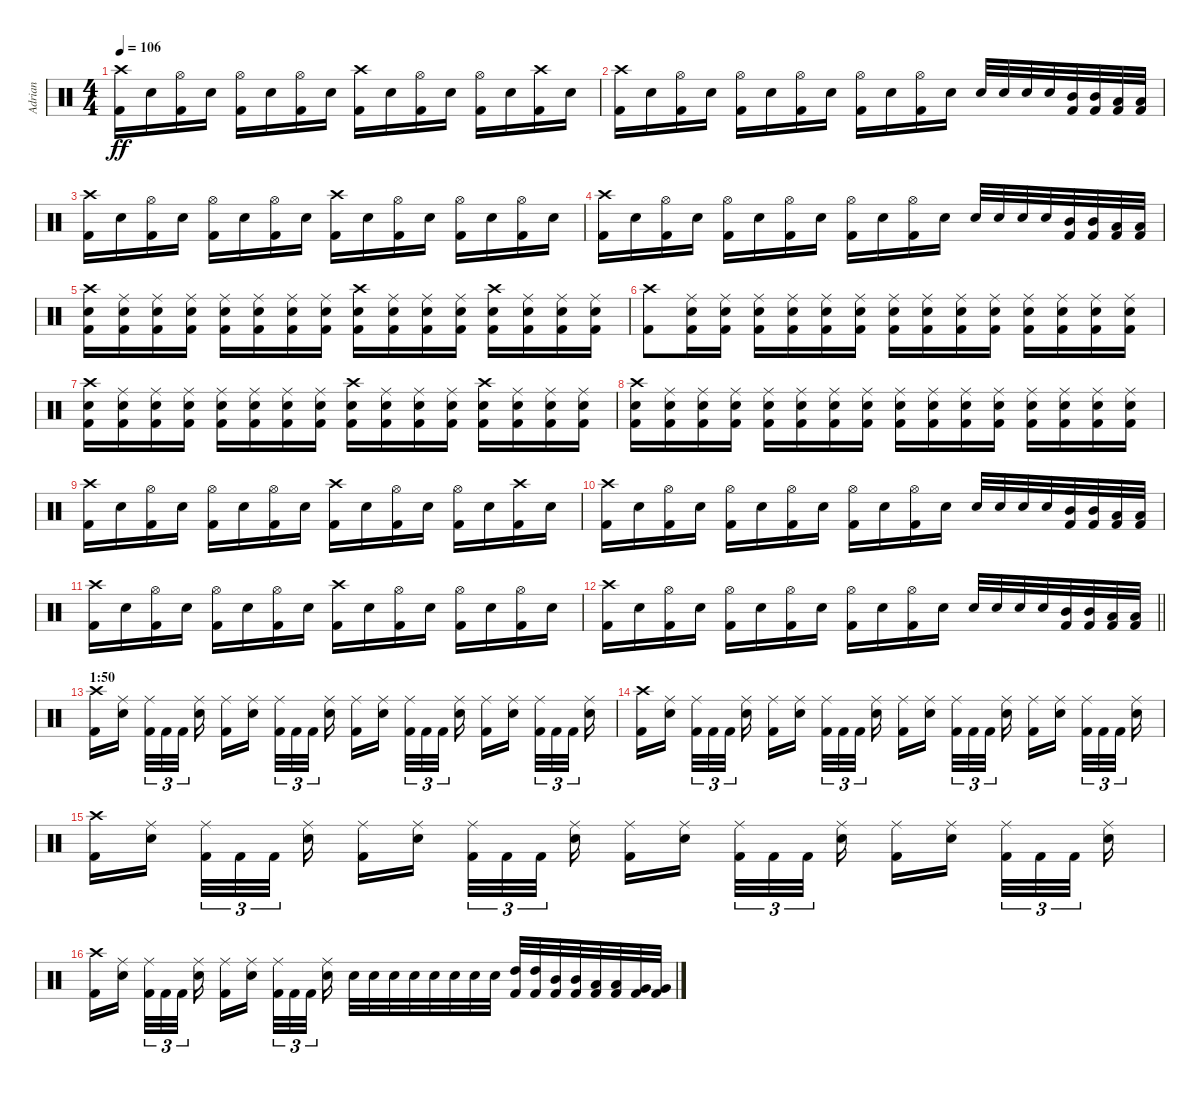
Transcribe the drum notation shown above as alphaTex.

\track ("Adrian" "Adrian") {instrument percussion}
\staff {score}
\articulation defaults
\ts (4 4)
\tempo 106
\clef neutral
\ks c
("Kick (hit) 2" "Crash high (hit)").16{dy ff} "Snare (hit) 2".16 ("Kick (hit) 2" "Hi-Hat (open)").16 "Snare (hit) 2".16 ("Kick (hit) 2" "Hi-Hat (open)").16 "Snare (hit) 2".16 ("Kick (hit) 2" "Hi-Hat (open)").16 "Snare (hit) 2".16 ("Kick (hit) 2" "Crash high (hit)").16 "Snare (hit) 2".16 ("Kick (hit) 2" "Hi-Hat (open)").16 "Snare (hit) 2".16 ("Kick (hit) 2" "Hi-Hat (open)").16 "Snare (hit) 2".16 ("Kick (hit) 2" "Crash high (hit)").16 "Snare (hit) 2".16 |
("Kick (hit) 2" "Crash high (hit)").16 "Snare (hit) 2".16 ("Kick (hit) 2" "Hi-Hat (open)").16 "Snare (hit) 2".16 ("Kick (hit) 2" "Hi-Hat (open)").16 "Snare (hit) 2".16 ("Kick (hit) 2" "Hi-Hat (open)").16 "Snare (hit) 2".16 ("Kick (hit) 2" "Hi-Hat (open)").16 "Snare (hit) 2".16 ("Kick (hit) 2" "Hi-Hat (open)").16 "Snare (hit) 2".16 "Snare (hit) 2".32 "Snare (hit) 2".32 "Snare (hit) 2".32 "Snare (hit) 2".32 ("Kick (hit) 2" "Mid Tom (hit)").32 ("Kick (hit) 2" "Mid Tom (hit)").32 ("Kick (hit) 2" "Low Tom (hit)").32 ("Kick (hit) 2" "Low Tom (hit)").32 |
("Kick (hit) 2" "Crash high (hit)").16 "Snare (hit) 2".16 ("Kick (hit) 2" "Hi-Hat (open)").16 "Snare (hit) 2".16 ("Kick (hit) 2" "Hi-Hat (open)").16 "Snare (hit) 2".16 ("Kick (hit) 2" "Hi-Hat (open)").16 "Snare (hit) 2".16 ("Kick (hit) 2" "Crash high (hit)").16 "Snare (hit) 2".16 ("Kick (hit) 2" "Hi-Hat (open)").16 "Snare (hit) 2".16 ("Kick (hit) 2" "Hi-Hat (open)").16 "Snare (hit) 2".16 ("Kick (hit) 2" "Hi-Hat (open)").16 "Snare (hit) 2".16 |
("Kick (hit) 2" "Crash high (hit)").16 "Snare (hit) 2".16 ("Kick (hit) 2" "Hi-Hat (open)").16 "Snare (hit) 2".16 ("Kick (hit) 2" "Hi-Hat (open)").16 "Snare (hit) 2".16 ("Kick (hit) 2" "Hi-Hat (open)").16 "Snare (hit) 2".16 ("Kick (hit) 2" "Hi-Hat (open)").16 "Snare (hit) 2".16 ("Kick (hit) 2" "Hi-Hat (open)").16 "Snare (hit) 2".16 "Snare (hit) 2".32 "Snare (hit) 2".32 "Snare (hit) 2".32 "Snare (hit) 2".32 ("Kick (hit) 2" "Mid Tom (hit)").32 ("Kick (hit) 2" "Mid Tom (hit)").32 ("Kick (hit) 2" "Low Tom (hit)").32 ("Kick (hit) 2" "Low Tom (hit)").32 |
("Kick (hit) 2" "Snare (hit) 2" "Crash high (hit)").16 ("Kick (hit) 2" "Snare (hit) 2" "Ride (middle)").16 ("Kick (hit) 2" "Snare (hit) 2" "Ride (middle)").16 ("Kick (hit) 2" "Snare (hit) 2" "Ride (middle)").16 ("Kick (hit) 2" "Snare (hit) 2" "Ride (middle)").16 ("Kick (hit) 2" "Snare (hit) 2" "Ride (middle)").16 ("Kick (hit) 2" "Snare (hit) 2" "Ride (middle)").16 ("Kick (hit) 2" "Snare (hit) 2" "Ride (middle)").16 ("Kick (hit) 2" "Snare (hit) 2" "Crash high (hit)").16 ("Kick (hit) 2" "Snare (hit) 2" "Ride (middle)").16 ("Kick (hit) 2" "Snare (hit) 2" "Ride (middle)").16 ("Kick (hit) 2" "Snare (hit) 2" "Ride (middle)").16 ("Kick (hit) 2" "Snare (hit) 2" "Crash high (hit)").16 ("Kick (hit) 2" "Snare (hit) 2" "Ride (middle)").16 ("Kick (hit) 2" "Snare (hit) 2" "Ride (middle)").16 ("Kick (hit) 2" "Snare (hit) 2" "Ride (middle)").16 |
("Kick (hit) 2" "Crash high (hit)").8 ("Kick (hit) 2" "Snare (hit) 2" "Ride (middle)").16 ("Kick (hit) 2" "Snare (hit) 2" "Ride (middle)").16 ("Kick (hit) 2" "Snare (hit) 2" "Ride (middle)").16 ("Kick (hit) 2" "Snare (hit) 2" "Ride (middle)").16 ("Kick (hit) 2" "Snare (hit) 2" "Ride (middle)").16 ("Kick (hit) 2" "Snare (hit) 2" "Ride (middle)").16 ("Kick (hit) 2" "Snare (hit) 2" "Ride (middle)").16 ("Kick (hit) 2" "Snare (hit) 2" "Ride (middle)").16 ("Kick (hit) 2" "Snare (hit) 2" "Ride (middle)").16 ("Kick (hit) 2" "Snare (hit) 2" "Ride (middle)").16 ("Kick (hit) 2" "Snare (hit) 2" "Ride (middle)").16 ("Kick (hit) 2" "Snare (hit) 2" "Ride (middle)").16 ("Kick (hit) 2" "Snare (hit) 2" "Ride (middle)").16 ("Kick (hit) 2" "Snare (hit) 2" "Ride (middle)").16 |
("Kick (hit) 2" "Snare (hit) 2" "Crash high (hit)").16 ("Kick (hit) 2" "Snare (hit) 2" "Ride (middle)").16 ("Kick (hit) 2" "Snare (hit) 2" "Ride (middle)").16 ("Kick (hit) 2" "Snare (hit) 2" "Ride (middle)").16 ("Kick (hit) 2" "Snare (hit) 2" "Ride (middle)").16 ("Kick (hit) 2" "Snare (hit) 2" "Ride (middle)").16 ("Kick (hit) 2" "Snare (hit) 2" "Ride (middle)").16 ("Kick (hit) 2" "Snare (hit) 2" "Ride (middle)").16 ("Kick (hit) 2" "Snare (hit) 2" "Crash high (hit)").16 ("Kick (hit) 2" "Snare (hit) 2" "Ride (middle)").16 ("Kick (hit) 2" "Snare (hit) 2" "Ride (middle)").16 ("Kick (hit) 2" "Snare (hit) 2" "Ride (middle)").16 ("Kick (hit) 2" "Snare (hit) 2" "Crash high (hit)").16 ("Kick (hit) 2" "Snare (hit) 2" "Ride (middle)").16 ("Kick (hit) 2" "Snare (hit) 2" "Ride (middle)").16 ("Kick (hit) 2" "Snare (hit) 2" "Ride (middle)").16 |
("Kick (hit) 2" "Snare (hit) 2" "Crash high (hit)").16 ("Kick (hit) 2" "Snare (hit) 2" "Ride (middle)").16 ("Kick (hit) 2" "Snare (hit) 2" "Ride (middle)").16 ("Kick (hit) 2" "Snare (hit) 2" "Ride (middle)").16 ("Kick (hit) 2" "Snare (hit) 2" "Ride (middle)").16 ("Kick (hit) 2" "Snare (hit) 2" "Ride (middle)").16 ("Kick (hit) 2" "Snare (hit) 2" "Ride (middle)").16 ("Kick (hit) 2" "Snare (hit) 2" "Ride (middle)").16 ("Kick (hit) 2" "Snare (hit) 2" "Ride (middle)").16 ("Kick (hit) 2" "Snare (hit) 2" "Ride (middle)").16 ("Kick (hit) 2" "Snare (hit) 2" "Ride (middle)").16 ("Kick (hit) 2" "Snare (hit) 2" "Ride (middle)").16 ("Kick (hit) 2" "Snare (hit) 2" "Ride (middle)").16 ("Kick (hit) 2" "Snare (hit) 2" "Ride (middle)").16 ("Kick (hit) 2" "Snare (hit) 2" "Ride (middle)").16 ("Kick (hit) 2" "Snare (hit) 2" "Ride (middle)").16 |
("Kick (hit) 2" "Crash high (hit)").16 "Snare (hit) 2".16 ("Kick (hit) 2" "Hi-Hat (open)").16 "Snare (hit) 2".16 ("Kick (hit) 2" "Hi-Hat (open)").16 "Snare (hit) 2".16 ("Kick (hit) 2" "Hi-Hat (open)").16 "Snare (hit) 2".16 ("Kick (hit) 2" "Crash high (hit)").16 "Snare (hit) 2".16 ("Kick (hit) 2" "Hi-Hat (open)").16 "Snare (hit) 2".16 ("Kick (hit) 2" "Hi-Hat (open)").16 "Snare (hit) 2".16 ("Kick (hit) 2" "Crash high (hit)").16 "Snare (hit) 2".16 |
("Kick (hit) 2" "Crash high (hit)").16 "Snare (hit) 2".16 ("Kick (hit) 2" "Hi-Hat (open)").16 "Snare (hit) 2".16 ("Kick (hit) 2" "Hi-Hat (open)").16 "Snare (hit) 2".16 ("Kick (hit) 2" "Hi-Hat (open)").16 "Snare (hit) 2".16 ("Kick (hit) 2" "Hi-Hat (open)").16 "Snare (hit) 2".16 ("Kick (hit) 2" "Hi-Hat (open)").16 "Snare (hit) 2".16 "Snare (hit) 2".32 "Snare (hit) 2".32 "Snare (hit) 2".32 "Snare (hit) 2".32 ("Kick (hit) 2" "Mid Tom (hit)").32 ("Kick (hit) 2" "Mid Tom (hit)").32 ("Kick (hit) 2" "Low Tom (hit)").32 ("Kick (hit) 2" "Low Tom (hit)").32 |
("Kick (hit) 2" "Crash high (hit)").16 "Snare (hit) 2".16 ("Kick (hit) 2" "Hi-Hat (open)").16 "Snare (hit) 2".16 ("Kick (hit) 2" "Hi-Hat (open)").16 "Snare (hit) 2".16 ("Kick (hit) 2" "Hi-Hat (open)").16 "Snare (hit) 2".16 ("Kick (hit) 2" "Crash high (hit)").16 "Snare (hit) 2".16 ("Kick (hit) 2" "Hi-Hat (open)").16 "Snare (hit) 2".16 ("Kick (hit) 2" "Hi-Hat (open)").16 "Snare (hit) 2".16 ("Kick (hit) 2" "Hi-Hat (open)").16 "Snare (hit) 2".16 |
\barLineRight lightlight
("Kick (hit) 2" "Crash high (hit)").16 "Snare (hit) 2".16 ("Kick (hit) 2" "Hi-Hat (open)").16 "Snare (hit) 2".16 ("Kick (hit) 2" "Hi-Hat (open)").16 "Snare (hit) 2".16 ("Kick (hit) 2" "Hi-Hat (open)").16 "Snare (hit) 2".16 ("Kick (hit) 2" "Hi-Hat (open)").16 "Snare (hit) 2".16 ("Kick (hit) 2" "Hi-Hat (open)").16 "Snare (hit) 2".16 "Snare (hit) 2".32 "Snare (hit) 2".32 "Snare (hit) 2".32 "Snare (hit) 2".32 ("Kick (hit) 2" "Mid Tom (hit)").32 ("Kick (hit) 2" "Mid Tom (hit)").32 ("Kick (hit) 2" "Low Tom (hit)").32 ("Kick (hit) 2" "Low Tom (hit)").32 |
\section ("" "1:50")
("Kick (hit) 2" "Crash high (hit)").16 ("Snare (hit) 2" "Ride (middle)").16{beam splitsecondary} ("Kick (hit) 2" "Ride (middle)").32{tu (3 2)} "Kick (hit) 2".32{tu (3 2)} "Kick (hit) 2".32{tu (3 2) beam splitsecondary} ("Snare (hit) 2" "Ride (middle)").16 ("Kick (hit) 2" "Ride (middle)").16 ("Snare (hit) 2" "Ride (middle)").16{beam splitsecondary} ("Kick (hit) 2" "Ride (middle)").32{tu (3 2)} "Kick (hit) 2".32{tu (3 2)} "Kick (hit) 2".32{tu (3 2) beam splitsecondary} ("Snare (hit) 2" "Ride (middle)").16 ("Kick (hit) 2" "Ride (middle)").16 ("Snare (hit) 2" "Ride (middle)").16{beam splitsecondary} ("Kick (hit) 2" "Ride (middle)").32{tu (3 2)} "Kick (hit) 2".32{tu (3 2)} "Kick (hit) 2".32{tu (3 2) beam splitsecondary} ("Snare (hit) 2" "Ride (middle)").16 ("Kick (hit) 2" "Ride (middle)").16 ("Snare (hit) 2" "Ride (middle)").16{beam splitsecondary} ("Kick (hit) 2" "Ride (middle)").32{tu (3 2)} "Kick (hit) 2".32{tu (3 2)} "Kick (hit) 2".32{tu (3 2) beam splitsecondary} ("Snare (hit) 2" "Ride (middle)").16 |
("Kick (hit) 2" "Crash high (hit)").16 ("Snare (hit) 2" "Ride (middle)").16{beam splitsecondary} ("Kick (hit) 2" "Ride (middle)").32{tu (3 2)} "Kick (hit) 2".32{tu (3 2)} "Kick (hit) 2".32{tu (3 2) beam splitsecondary} ("Snare (hit) 2" "Ride (middle)").16 ("Kick (hit) 2" "Ride (middle)").16 ("Snare (hit) 2" "Ride (middle)").16{beam splitsecondary} ("Kick (hit) 2" "Ride (middle)").32{tu (3 2)} "Kick (hit) 2".32{tu (3 2)} "Kick (hit) 2".32{tu (3 2) beam splitsecondary} ("Snare (hit) 2" "Ride (middle)").16 ("Kick (hit) 2" "Ride (middle)").16 ("Snare (hit) 2" "Ride (middle)").16{beam splitsecondary} ("Kick (hit) 2" "Ride (middle)").32{tu (3 2)} "Kick (hit) 2".32{tu (3 2)} "Kick (hit) 2".32{tu (3 2) beam splitsecondary} ("Snare (hit) 2" "Ride (middle)").16 ("Kick (hit) 2" "Ride (middle)").16 ("Snare (hit) 2" "Ride (middle)").16{beam splitsecondary} ("Kick (hit) 2" "Ride (middle)").32{tu (3 2)} "Kick (hit) 2".32{tu (3 2)} "Kick (hit) 2".32{tu (3 2) beam splitsecondary} ("Snare (hit) 2" "Ride (middle)").16 |
("Kick (hit) 2" "Crash high (hit)").16 ("Snare (hit) 2" "Ride (middle)").16{beam splitsecondary} ("Kick (hit) 2" "Ride (middle)").32{tu (3 2)} "Kick (hit) 2".32{tu (3 2)} "Kick (hit) 2".32{tu (3 2) beam splitsecondary} ("Snare (hit) 2" "Ride (middle)").16 ("Kick (hit) 2" "Ride (middle)").16 ("Snare (hit) 2" "Ride (middle)").16{beam splitsecondary} ("Kick (hit) 2" "Ride (middle)").32{tu (3 2)} "Kick (hit) 2".32{tu (3 2)} "Kick (hit) 2".32{tu (3 2) beam splitsecondary} ("Snare (hit) 2" "Ride (middle)").16 ("Kick (hit) 2" "Ride (middle)").16 ("Snare (hit) 2" "Ride (middle)").16{beam splitsecondary} ("Kick (hit) 2" "Ride (middle)").32{tu (3 2)} "Kick (hit) 2".32{tu (3 2)} "Kick (hit) 2".32{tu (3 2) beam splitsecondary} ("Snare (hit) 2" "Ride (middle)").16 ("Kick (hit) 2" "Ride (middle)").16 ("Snare (hit) 2" "Ride (middle)").16{beam splitsecondary} ("Kick (hit) 2" "Ride (middle)").32{tu (3 2)} "Kick (hit) 2".32{tu (3 2)} "Kick (hit) 2".32{tu (3 2) beam splitsecondary} ("Snare (hit) 2" "Ride (middle)").16 |
("Kick (hit) 2" "Crash high (hit)").16 ("Snare (hit) 2" "Ride (middle)").16{beam splitsecondary} ("Kick (hit) 2" "Ride (middle)").32{tu (3 2)} "Kick (hit) 2".32{tu (3 2)} "Kick (hit) 2".32{tu (3 2) beam splitsecondary} ("Snare (hit) 2" "Ride (middle)").16 ("Kick (hit) 2" "Ride (middle)").16 ("Snare (hit) 2" "Ride (middle)").16{beam splitsecondary} ("Kick (hit) 2" "Ride (middle)").32{tu (3 2)} "Kick (hit) 2".32{tu (3 2)} "Kick (hit) 2".32{tu (3 2) beam splitsecondary} ("Snare (hit) 2" "Ride (middle)").16 "Snare (hit) 2".32 "Snare (hit) 2".32 "Snare (hit) 2".32 "Snare (hit) 2".32 "Snare (hit) 2".32 "Snare (hit) 2".32 "Snare (hit) 2".32 "Snare (hit) 2".32 ("Kick (hit) 2" "High Tom (hit)").32 ("Kick (hit) 2" "High Tom (hit)").32 ("Kick (hit) 2" "Mid Tom (hit)").32 ("Kick (hit) 2" "Mid Tom (hit)").32 ("Kick (hit) 2" "Low Tom (hit)").32 ("Kick (hit) 2" "Low Tom (hit)").32 ("Kick (hit) 2" "Very Low Tom (hit)").32 ("Kick (hit) 2" "Very Low Tom (hit)").32
